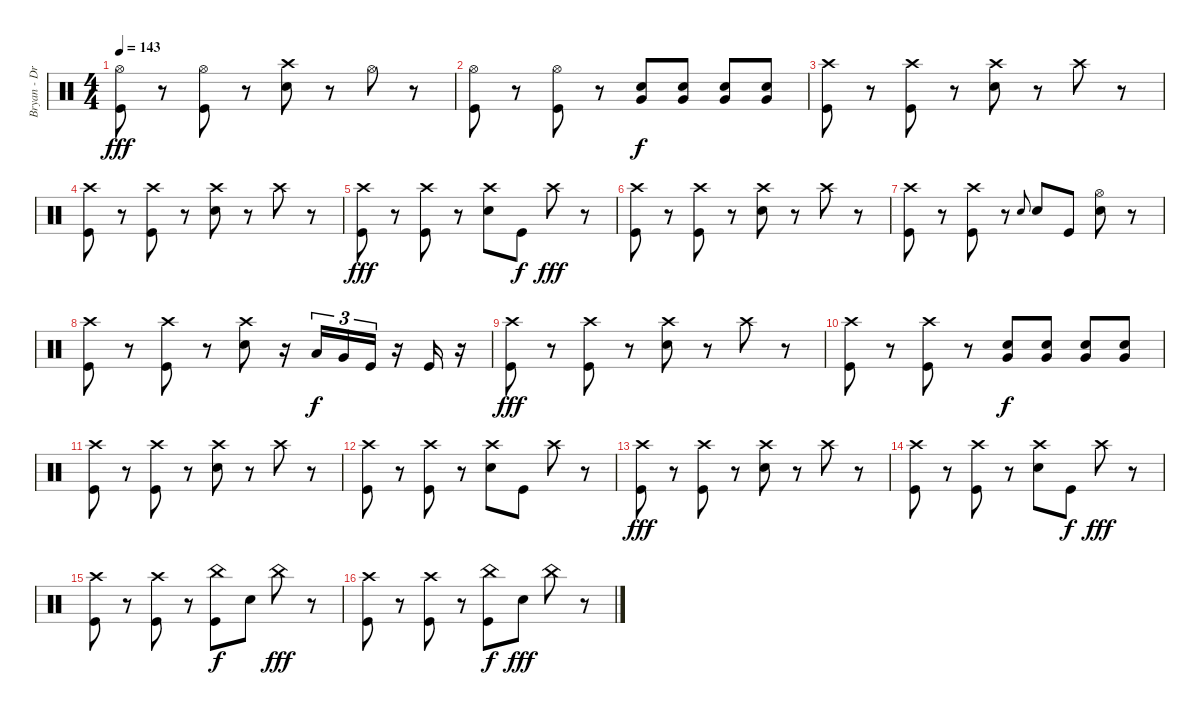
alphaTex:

\track ("Bryan - Drums" "Bryan - Dr") {instrument percussion}
\staff {score}
\articulation defaults
\ts (4 4)
\tempo 143
\clef neutral
\ks c
("Hi-Hat (open)" "Kick (hit)").8{dy fff} r.8 ("Hi-Hat (open)" "Kick (hit)").8 r.8 ("Crash high (hit)" "Snare (hit) 2").8 r.8 "Hi-Hat (open)".8 r.8 |
("Hi-Hat (open)" "Kick (hit)").8 r.8 ("Hi-Hat (open)" "Kick (hit)").8 r.8 ("Snare (hit) 2" "Very Low Tom (hit)").8{dy f} ("Snare (hit) 2" "Very Low Tom (hit)").8 ("Snare (hit) 2" "Very Low Tom (hit)").8 ("Snare (hit) 2" "Very Low Tom (hit)").8 |
("Crash high (hit)" "Kick (hit)").8 r.8 ("Crash high (hit)" "Kick (hit)").8 r.8 ("Crash high (hit)" "Snare (hit) 2").8 r.8 "Crash high (hit)".8 r.8 |
("Crash high (hit)" "Kick (hit)").8 r.8 ("Crash high (hit)" "Kick (hit)").8 r.8 ("Crash high (hit)" "Snare (hit) 2").8 r.8 "Crash high (hit)".8 r.8 |
("Crash high (hit)" "Kick (hit)").8{dy fff} r.8 ("Crash high (hit)" "Kick (hit)").8 r.8 ("Crash high (hit)" "Snare (hit) 2").8 "Kick (hit)".8{dy f} "Crash high (hit)".8{dy fff} r.8 |
("Crash high (hit)" "Kick (hit)").8 r.8 ("Crash high (hit)" "Kick (hit)").8 r.8 ("Crash high (hit)" "Snare (hit) 2").8 r.8 "Crash high (hit)".8 r.8 |
("Crash high (hit)" "Kick (hit)").8 r.8 ("Crash high (hit)" "Kick (hit)").8 r.8 "Snare (hit) 2".8{gr onbeat} "Snare (hit) 2".8 "Kick (hit)".8 ("Hi-Hat (open)" "Snare (hit) 2").8 r.8 |
("Crash high (hit)" "Kick (hit)").8 r.8 ("Crash high (hit)" "Kick (hit)").8 r.8 ("Crash high (hit)" "Snare (hit) 2").8 r.16 "Low Tom (hit)".16{tu (3 2) dy f} "Very Low Tom (hit)".16{tu (3 2)} "Kick (hit)".16{tu (3 2)} r.16 "Kick (hit)".16 r.16 |
("Crash high (hit)" "Kick (hit)").8{dy fff} r.8 ("Crash high (hit)" "Kick (hit)").8 r.8 ("Crash high (hit)" "Snare (hit) 2").8 r.8 "Crash high (hit)".8 r.8 |
("Crash high (hit)" "Kick (hit)").8 r.8 ("Crash high (hit)" "Kick (hit)").8 r.8 ("Snare (hit) 2" "Very Low Tom (hit)").8{dy f} ("Snare (hit) 2" "Very Low Tom (hit)").8 ("Snare (hit) 2" "Very Low Tom (hit)").8 ("Snare (hit) 2" "Very Low Tom (hit)").8 |
("Crash high (hit)" "Kick (hit)").8 r.8 ("Crash high (hit)" "Kick (hit)").8 r.8 ("Crash high (hit)" "Snare (hit) 2").8 r.8 "Crash high (hit)".8 r.8 |
("Crash high (hit)" "Kick (hit)").8 r.8 ("Crash high (hit)" "Kick (hit)").8 r.8 ("Crash high (hit)" "Snare (hit) 2").8 "Kick (hit)".8 "Crash high (hit)".8 r.8 |
("Crash high (hit)" "Kick (hit)").8{dy fff} r.8 ("Crash high (hit)" "Kick (hit)").8 r.8 ("Crash high (hit)" "Snare (hit) 2").8 r.8 "Crash high (hit)".8 r.8 |
("Crash high (hit)" "Kick (hit)").8 r.8 ("Crash high (hit)" "Kick (hit)").8 r.8 ("Crash high (hit)" "Snare (hit) 2").8 "Kick (hit)".8{dy f} "Crash high (hit)".8{dy fff} r.8 |
("Crash high (hit)" "Kick (hit)").8 r.8 ("Crash high (hit)" "Kick (hit)").8 r.8 ("China (hit)" "Kick (hit)").8{dy f} "Snare (hit) 2".8 "China (hit)".8{dy fff} r.8 |
("Crash high (hit)" "Kick (hit)").8 r.8 ("Crash high (hit)" "Kick (hit)").8 r.8 ("China (hit)" "Kick (hit)").8{dy f} "Snare (hit) 2".8{dy fff} "China (hit)".8 r.8
